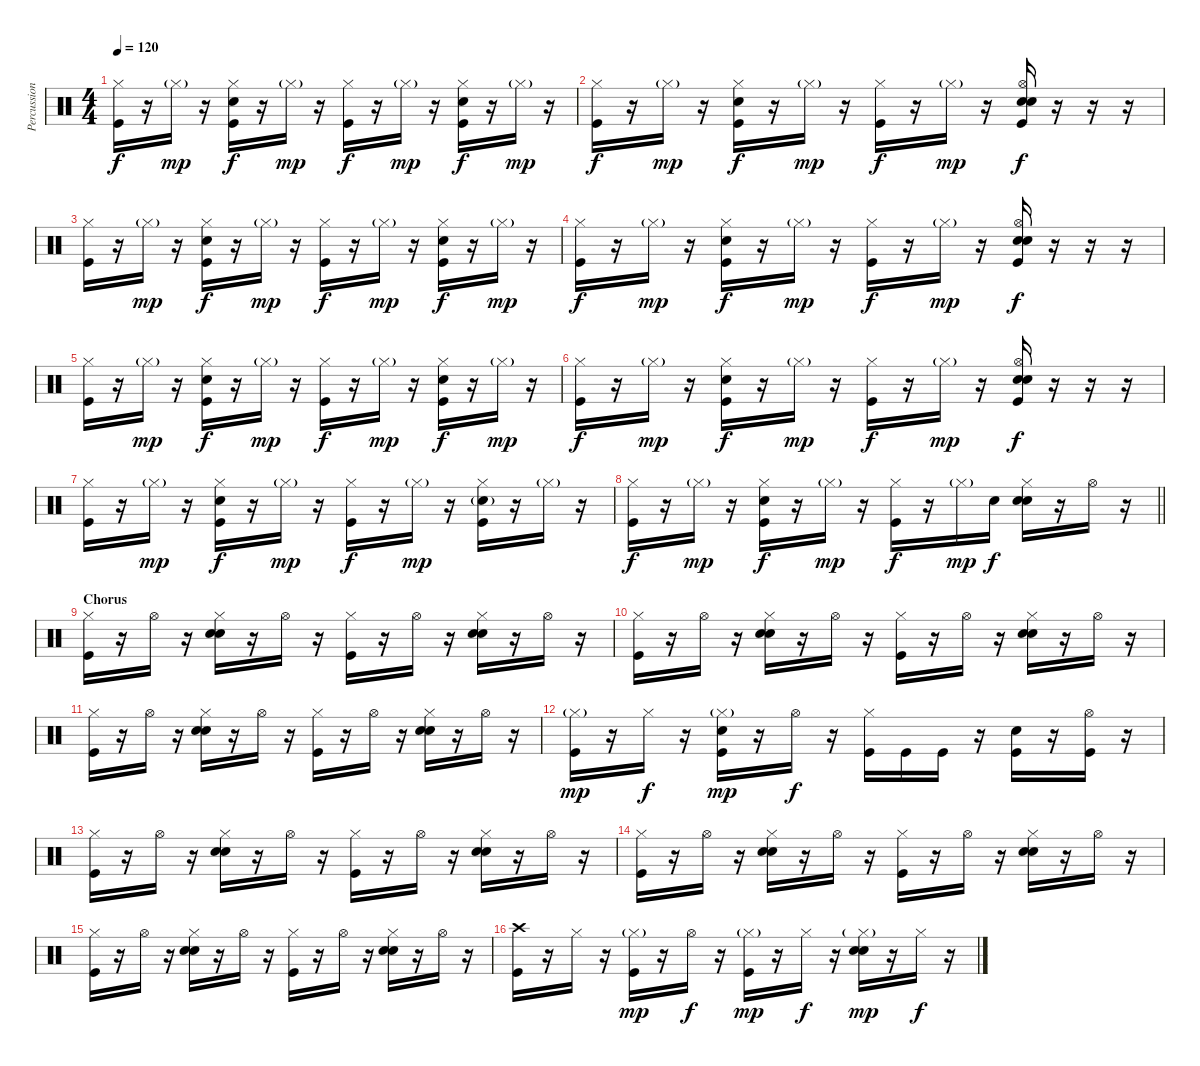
\track ("Percussion" "Percussion") {instrument percussion}
\staff {score}
\articulation defaults
\ts (4 4)
\tempo 120
\clef neutral
\ks c
("Hi-Hat (closed)" "Kick (hit)").16{dy f} r.16 "Hi-Hat (closed)"{g}.16{dy mp} r.16 ("Hi-Hat (closed)" "Snare (hit) 2" "Kick (hit)").16{dy f} r.16 "Hi-Hat (closed)"{g}.16{dy mp} r.16 ("Hi-Hat (closed)" "Kick (hit)").16{dy f} r.16 "Hi-Hat (closed)"{g}.16{dy mp} r.16 ("Hi-Hat (closed)" "Snare (hit) 2" "Kick (hit)").16{dy f} r.16 "Hi-Hat (closed)"{g}.16{dy mp} r.16 |
("Hi-Hat (closed)" "Kick (hit)").16{dy f} r.16 "Hi-Hat (closed)"{g}.16{dy mp} r.16 ("Hi-Hat (closed)" "Snare (hit) 2" "Kick (hit)").16{dy f} r.16 "Hi-Hat (closed)"{g}.16{dy mp} r.16 ("Hi-Hat (closed)" "Kick (hit)").16{dy f} r.16 "Hi-Hat (closed)"{g}.16{dy mp} r.16 ("Hi-Hat (open)" "Hand Clap (hit)" "Snare (hit) 2" "Kick (hit)").16{dy f} r.16 r.16 r.16 |
("Hi-Hat (closed)" "Kick (hit)").16 r.16 "Hi-Hat (closed)"{g}.16{dy mp} r.16 ("Hi-Hat (closed)" "Snare (hit) 2" "Kick (hit)").16{dy f} r.16 "Hi-Hat (closed)"{g}.16{dy mp} r.16 ("Hi-Hat (closed)" "Kick (hit)").16{dy f} r.16 "Hi-Hat (closed)"{g}.16{dy mp} r.16 ("Hi-Hat (closed)" "Snare (hit) 2" "Kick (hit)").16{dy f} r.16 "Hi-Hat (closed)"{g}.16{dy mp} r.16 |
("Hi-Hat (closed)" "Kick (hit)").16{dy f} r.16 "Hi-Hat (closed)"{g}.16{dy mp} r.16 ("Hi-Hat (closed)" "Snare (hit) 2" "Kick (hit)").16{dy f} r.16 "Hi-Hat (closed)"{g}.16{dy mp} r.16 ("Hi-Hat (closed)" "Kick (hit)").16{dy f} r.16 "Hi-Hat (closed)"{g}.16{dy mp} r.16 ("Hi-Hat (open)" "Hand Clap (hit)" "Snare (hit) 2" "Kick (hit)").16{dy f} r.16 r.16 r.16 |
("Hi-Hat (closed)" "Kick (hit)").16 r.16 "Hi-Hat (closed)"{g}.16{dy mp} r.16 ("Hi-Hat (closed)" "Snare (hit) 2" "Kick (hit)").16{dy f} r.16 "Hi-Hat (closed)"{g}.16{dy mp} r.16 ("Hi-Hat (closed)" "Kick (hit)").16{dy f} r.16 "Hi-Hat (closed)"{g}.16{dy mp} r.16 ("Hi-Hat (closed)" "Snare (hit) 2" "Kick (hit)").16{dy f} r.16 "Hi-Hat (closed)"{g}.16{dy mp} r.16 |
("Hi-Hat (closed)" "Kick (hit)").16{dy f} r.16 "Hi-Hat (closed)"{g}.16{dy mp} r.16 ("Hi-Hat (closed)" "Snare (hit) 2" "Kick (hit)").16{dy f} r.16 "Hi-Hat (closed)"{g}.16{dy mp} r.16 ("Hi-Hat (closed)" "Kick (hit)").16{dy f} r.16 "Hi-Hat (closed)"{g}.16{dy mp} r.16 ("Hi-Hat (open)" "Hand Clap (hit)" "Snare (hit) 2" "Kick (hit)").16{dy f} r.16 r.16 r.16 |
("Hi-Hat (closed)" "Kick (hit)").16 r.16 "Hi-Hat (closed)"{g}.16{dy mp} r.16 ("Hi-Hat (closed)" "Snare (hit) 2" "Kick (hit)").16{dy f} r.16 "Hi-Hat (closed)"{g}.16{dy mp} r.16 ("Hi-Hat (closed)" "Kick (hit)").16{dy f} r.16 "Hi-Hat (closed)"{g}.16{dy mp} r.16 ("Hi-Hat (closed)" "Snare (hit) 2"{g} "Kick (hit)").16 r.16 "Hi-Hat (closed)"{g}.16 r.16 |
\barLineRight lightlight
("Hi-Hat (closed)" "Kick (hit)").16{dy f} r.16 "Hi-Hat (closed)"{g}.16{dy mp} r.16 ("Hi-Hat (closed)" "Snare (hit) 2" "Kick (hit)").16{dy f} r.16 "Hi-Hat (closed)"{g}.16{dy mp} r.16 ("Hi-Hat (closed)" "Kick (hit)").16{dy f} r.16 "Hi-Hat (closed)"{g}.16{dy mp} "Snare (hit) 2".16{dy f} ("Hi-Hat (closed)" "Hand Clap (hit)" "Snare (hit) 2").16 r.16 "Hi-Hat (open)".16 r.16 |
\section ("" "Chorus")
("Hi-Hat (closed)" "Kick (hit)").16 r.16 "Hi-Hat (open)".16 r.16 ("Hi-Hat (closed)" "Hand Clap (hit)" "Snare (hit) 2").16 r.16 "Hi-Hat (open)".16 r.16 ("Hi-Hat (closed)" "Kick (hit)").16 r.16 "Hi-Hat (open)".16 r.16 ("Hi-Hat (closed)" "Hand Clap (hit)" "Snare (hit) 2").16 r.16 "Hi-Hat (open)".16 r.16 |
("Hi-Hat (closed)" "Kick (hit)").16 r.16 "Hi-Hat (open)".16 r.16 ("Hi-Hat (closed)" "Hand Clap (hit)" "Snare (hit) 2").16 r.16 "Hi-Hat (open)".16 r.16 ("Hi-Hat (closed)" "Kick (hit)").16 r.16 "Hi-Hat (open)".16 r.16 ("Hi-Hat (closed)" "Hand Clap (hit)" "Snare (hit) 2").16 r.16 "Hi-Hat (open)".16 r.16 |
("Hi-Hat (closed)" "Kick (hit)").16 r.16 "Hi-Hat (open)".16 r.16 ("Hi-Hat (closed)" "Hand Clap (hit)" "Snare (hit) 2").16 r.16 "Hi-Hat (open)".16 r.16 ("Hi-Hat (closed)" "Kick (hit)").16 r.16 "Hi-Hat (open)".16 r.16 ("Hi-Hat (closed)" "Hand Clap (hit)" "Snare (hit) 2").16 r.16 "Hi-Hat (open)".16 r.16 |
("Hi-Hat (closed)"{g} "Kick (hit)").16{dy mp} r.16 "Hi-Hat (closed)".16{dy f} r.16 ("Hi-Hat (closed)"{g} "Hand Clap (hit)" "Kick (hit)").16{dy mp} r.16 "Hi-Hat (open)".16{dy f} r.16 ("Hi-Hat (closed)" "Kick (hit)").16 "Kick (hit)".16 "Kick (hit)".16 r.16 ("Hand Clap (hit)" "Kick (hit)").16 r.16 ("Hi-Hat (open)" "Kick (hit)").16 r.16 |
("Hi-Hat (closed)" "Kick (hit)").16 r.16 "Hi-Hat (open)".16 r.16 ("Hi-Hat (closed)" "Hand Clap (hit)" "Snare (hit) 2").16 r.16 "Hi-Hat (open)".16 r.16 ("Hi-Hat (closed)" "Kick (hit)").16 r.16 "Hi-Hat (open)".16 r.16 ("Hi-Hat (closed)" "Hand Clap (hit)" "Snare (hit) 2").16 r.16 "Hi-Hat (open)".16 r.16 |
("Hi-Hat (closed)" "Kick (hit)").16 r.16 "Hi-Hat (open)".16 r.16 ("Hi-Hat (closed)" "Hand Clap (hit)" "Snare (hit) 2").16 r.16 "Hi-Hat (open)".16 r.16 ("Hi-Hat (closed)" "Kick (hit)").16 r.16 "Hi-Hat (open)".16 r.16 ("Hi-Hat (closed)" "Hand Clap (hit)" "Snare (hit) 2").16 r.16 "Hi-Hat (open)".16 r.16 |
("Hi-Hat (closed)" "Kick (hit)").16 r.16 "Hi-Hat (open)".16 r.16 ("Hi-Hat (closed)" "Hand Clap (hit)" "Snare (hit) 2").16 r.16 "Hi-Hat (open)".16 r.16 ("Hi-Hat (closed)" "Kick (hit)").16 r.16 "Hi-Hat (open)".16 r.16 ("Hi-Hat (closed)" "Hand Clap (hit)" "Snare (hit) 2").16 r.16 "Hi-Hat (open)".16 r.16 |
("Crash high (hit)" "Kick (hit)").16 r.16 "Hi-Hat (closed)".16 r.16 ("Hi-Hat (closed)"{g} "Kick (hit)").16{dy mp} r.16 "Hi-Hat (open)".16{dy f} r.16 ("Hi-Hat (closed)"{g} "Kick (hit)").16{dy mp} r.16 "Hi-Hat (closed)".16{dy f} r.16 ("Hi-Hat (closed)"{g} "Hand Clap (hit)" "Snare (hit) 2").16{dy mp} r.16 "Hi-Hat (closed)".16{dy f} r.16
